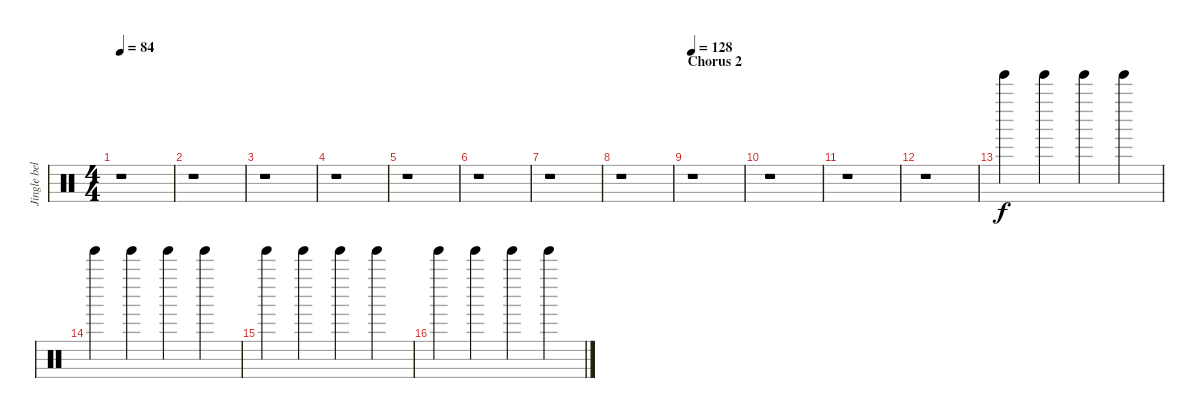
\track ("Jingle bell" "Jingle bel") {instrument percussion}
\staff {score}
\articulation defaults
\ts (4 4)
\tempo 84
\clef neutral
\ks c
r.1{dy f} |
r.1 |
r.1 |
r.1 |
r.1 |
r.1 |
r.1 |
r.1 |
\section ("" "Chorus 2")
\tempo 128
r.1 |
r.1 |
r.1 |
r.1 |
"Tinkle Bell (hit)".4 "Tinkle Bell (hit)".4 "Tinkle Bell (hit)".4 "Tinkle Bell (hit)".4 |
"Tinkle Bell (hit)".4 "Tinkle Bell (hit)".4 "Tinkle Bell (hit)".4 "Tinkle Bell (hit)".4 |
"Tinkle Bell (hit)".4 "Tinkle Bell (hit)".4 "Tinkle Bell (hit)".4 "Tinkle Bell (hit)".4 |
"Tinkle Bell (hit)".4 "Tinkle Bell (hit)".4 "Tinkle Bell (hit)".4 "Tinkle Bell (hit)".4
